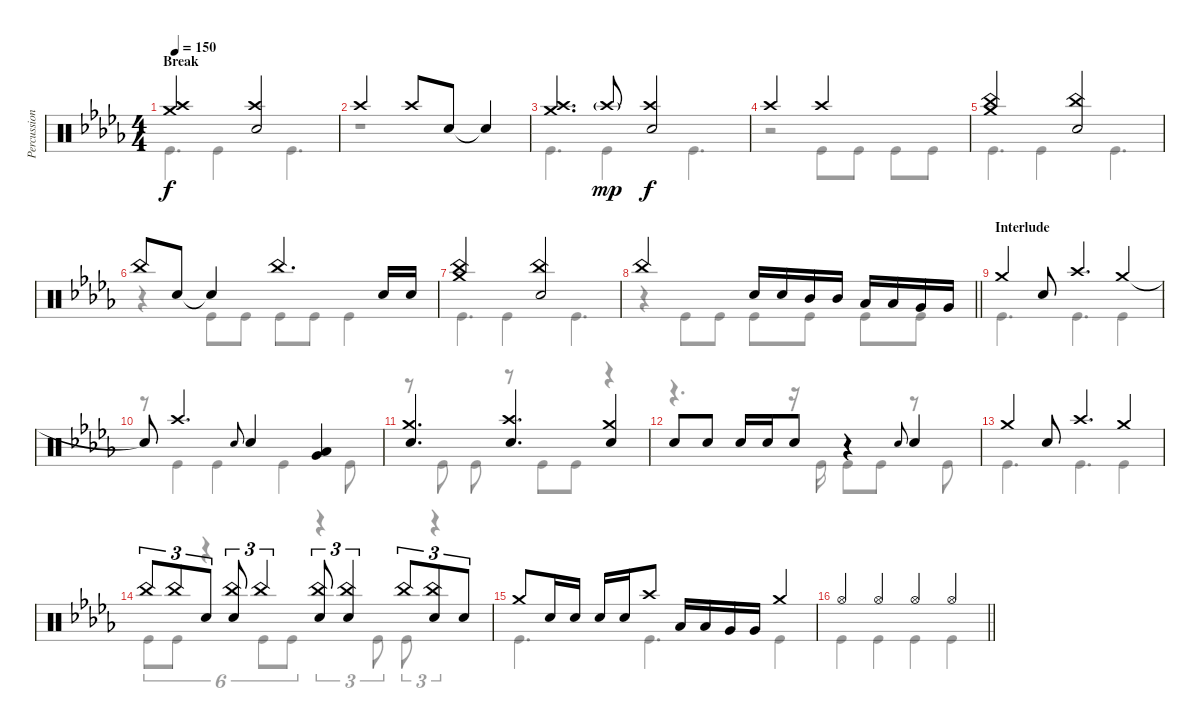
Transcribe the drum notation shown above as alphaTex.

\track ("Percussion" "Percussion") {instrument percussion}
\staff {score}
\articulation defaults
\voice
\ts (4 4)
\section ("" "Break")
\tempo 150
\clef neutral
\ks bbminor
("Crash medium (hit)" "Crash high (hit)").2{dy f} ("Crash high (hit)" "Electric Snare (hit)").2 |
"Crash high (hit)".2 "Crash high (hit)".8 "Electric Snare (hit)".8 "Snare (hit)"{t}.4 |
("Crash medium (hit)" "Crash high (hit)").4{d} "Crash high (hit)"{g}.8{dy mp} ("Crash high (hit)" "Electric Snare (hit)").2{dy f} |
"Crash high (hit)".2 "Crash high (hit)".2 |
("Crash medium (hit)" "China (hit)").2 ("China (hit)" "Electric Snare (hit)").2 |
"China (hit)".8 "Electric Snare (hit)".8 "Snare (hit)"{t}.4 "China (hit)".4{d} "Electric Snare (hit)".16 "Electric Snare (hit)".16 |
("Crash medium (hit)" "China (hit)").2 ("China (hit)" "Electric Snare (hit)").2 |
\barLineRight lightlight "China (hit)".2 "Electric Snare (hit)".16 "Electric Snare (hit)".16 "Mid Tom (hit)".16 "Mid Tom (hit)".16 "Low Tom (hit)".16 "Low Tom (hit)".16 "Very Low Tom (hit)".16 "Very Low Tom (hit)".16
|
\section ("" "Interlude")
"Crash medium (hit)".4 "Electric Snare (hit)".8 "Crash high (hit)".4{d} "Crash medium (hit)".4 |
"Snare (hit)"{t}.8 "Crash high (hit)".4{d} "Electric Snare (hit)".8{gr onbeat} "Electric Snare (hit)".4 ("Low Tom (hit)" "Very Low Tom (hit)").4 |
("Crash medium (hit)" "Electric Snare (hit)").4{d} ("Crash high (hit)" "Electric Snare (hit)").4{d} ("Crash medium (hit)" "Electric Snare (hit)").4 |
"Electric Snare (hit)".8 "Electric Snare (hit)".8 "Electric Snare (hit)".16 "Electric Snare (hit)".16 "Electric Snare (hit)".8 r.4 "Electric Snare (hit)".8{gr onbeat} "Electric Snare (hit)".4 |
"Crash medium (hit)".4 "Electric Snare (hit)".8 "Crash high (hit)".4{d} "Crash medium (hit)".4 |
"China (hit)".8{tu (3 2)} "China (hit)".8{tu (3 2)} "Electric Snare (hit)".8{tu (3 2)} ("China (hit)" "Electric Snare (hit)").8{tu (3 2)} "China (hit)".4{tu (3 2)} ("China (hit)" "Electric Snare (hit)").8{tu (3 2)} ("China (hit)" "Electric Snare (hit)").4{tu (3 2)} "China (hit)".8{tu (3 2)} ("China (hit)" "Electric Snare (hit)").8{tu (3 2)} "Electric Snare (hit)".8{tu (3 2)} |
"Crash medium (hit)".8 "Electric Snare (hit)".16 "Electric Snare (hit)".16 "Electric Snare (hit)".16 "Electric Snare (hit)".16 "Crash high (hit)".8 "Low Tom (hit)".16 "Low Tom (hit)".16 "Very Low Tom (hit)".16 "Very Low Tom (hit)".16 "Crash medium (hit)".4 |
\barLineRight lightlight "Hi-Hat (open)".4 "Hi-Hat (open)".4 "Hi-Hat (open)".4 "Hi-Hat (open)".4
\voice
\clef neutral
\ottava regular
\simile none
\ks bbminor "Kick (hit)".4{d dy f} "Kick (hit)".4 "Kick (hit)".4{d}
|
r.1 |
"Kick (hit)".4{d} "Kick (hit)".4 "Kick (hit)".4{d} |
r.2 "Kick (hit)".8 "Kick (hit)".8 "Kick (hit)".8 "Kick (hit)".8 |
"Kick (hit)".4{d} "Kick (hit)".4 "Kick (hit)".4{d} |
r.4 "Kick (hit)".8 "Kick (hit)".8 "Kick (hit)".8 "Kick (hit)".8 "Kick (hit)".4 |
"Kick (hit)".4{d} "Kick (hit)".4 "Kick (hit)".4{d} |
\barLineRight lightlight
r.4 "Kick (hit)".8 "Kick (hit)".8 "Kick (hit)".8 "Kick (hit)".8 "Kick (hit)".8 "Kick (hit)".8 |
"Kick (hit)".4{d} "Kick (hit)".4{d} "Kick (hit)".4 |
r.8 "Kick (hit)".4 "Kick (hit)".4 "Kick (hit)".4 "Kick (hit)".8 |
r.8 "Kick (hit)".8 "Kick (hit)".8 r.8 "Kick (hit)".8 "Kick (hit)".8 r.4 |
r.4{d} r.16 "Kick (hit)".16 "Kick (hit)".8 "Kick (hit)".8 r.8 "Kick (hit)".8 |
"Kick (hit)".4{d} "Kick (hit)".4{d} "Kick (hit)".4 |
"Kick (hit)".8{tu (6 4)} "Kick (hit)".8{tu (6 4)} r.4{tu (6 4)} "Kick (hit)".8{tu (6 4)} "Kick (hit)".8{tu (6 4)} r.4{tu (3 2)} "Kick (hit)".8{tu (3 2)} "Kick (hit)".8{tu (3 2)} r.4{tu (3 2)} |
"Kick (hit)".4{d} "Kick (hit)".4{d} "Kick (hit)".4 |
\barLineRight lightlight "Kick (hit)".4 "Kick (hit)".4 "Kick (hit)".4 "Kick (hit)".4
